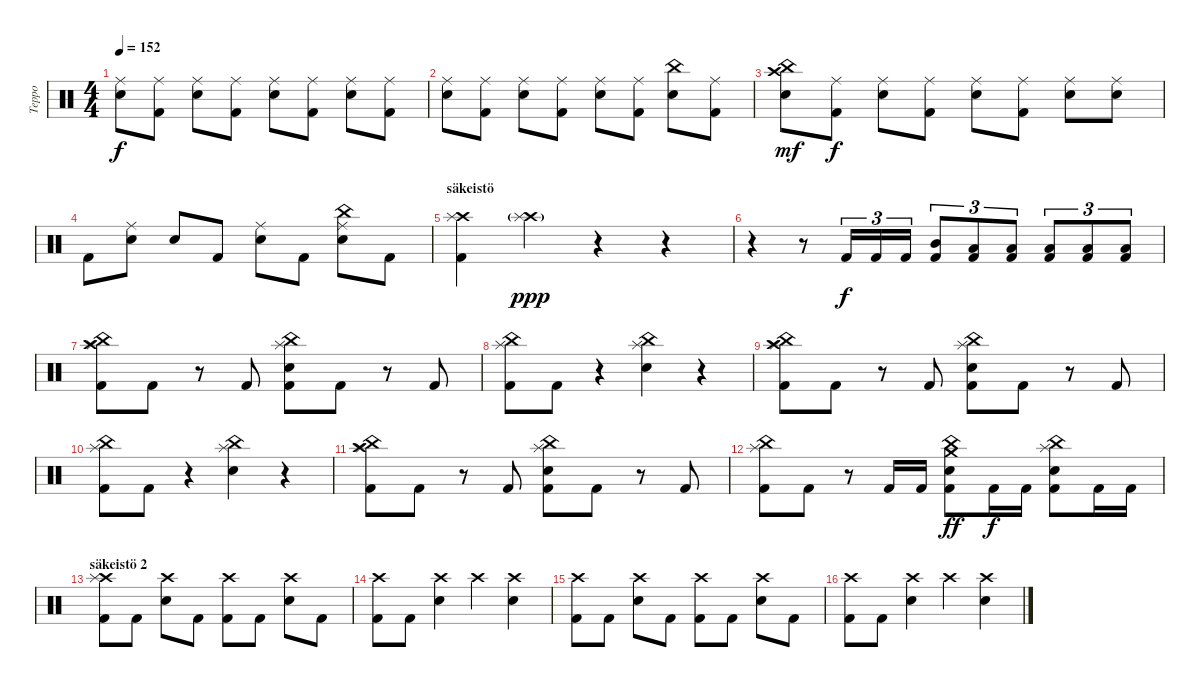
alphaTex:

\track ("Teppo" "Teppo") {instrument percussion}
\staff {score}
\articulation defaults
\ts (4 4)
\tempo 152
\clef neutral
\ks c
("Ride (middle)" "Electric Snare (hit)").8{dy f} ("Ride (middle)" "Kick (hit) 2").8 ("Ride (middle)" "Electric Snare (hit)").8 ("Ride (middle)" "Kick (hit) 2").8 ("Ride (middle)" "Electric Snare (hit)").8 ("Ride (middle)" "Kick (hit) 2").8 ("Ride (middle)" "Electric Snare (hit)").8 ("Ride (middle)" "Kick (hit) 2").8 |
("Ride (middle)" "Electric Snare (hit)").8 ("Ride (middle)" "Kick (hit) 2").8 ("Ride (middle)" "Electric Snare (hit)").8 ("Ride (middle)" "Kick (hit) 2").8 ("Ride (middle)" "Electric Snare (hit)").8 ("Ride (middle)" "Kick (hit) 2").8 ("China (hit)" "Electric Snare (hit)").8 ("Ride (middle)" "Kick (hit) 2").8 |
("China (hit)" "Crash high (hit)" "Electric Snare (hit)").8{dy mf} ("Ride (middle)" "Kick (hit) 2").8{dy f} ("Ride (middle)" "Electric Snare (hit)").8 ("Ride (middle)" "Kick (hit) 2").8 ("Ride (middle)" "Electric Snare (hit)").8 ("Ride (middle)" "Kick (hit) 2").8 ("Ride (middle)" "Electric Snare (hit)").8 ("Ride (middle)" "Electric Snare (hit)").8 |
"Kick (hit) 2".8 ("Ride (middle)" "Electric Snare (hit)").8 "Electric Snare (hit)".8 "Kick (hit) 2".8 ("Ride (middle)" "Electric Snare (hit)").8 "Kick (hit) 2".8 ("Ride (middle)" "China (hit)" "Electric Snare (hit)").8 "Kick (hit) 2".8 |
\section ("" "säkeistö")
("Crash high (hit)" "Splash (hit)" "Kick (hit) 2").4 ("Crash high (hit)"{g} "Splash (hit)"{g}).4{dy ppp} r.4 r.4 |
r.4 r.8 "Kick (hit) 2".16{tu (3 2) dy f} "Kick (hit) 2".16{tu (3 2)} "Kick (hit) 2".16{tu (3 2)} ("Mid Tom (hit)" "Kick (hit) 2").8{tu (3 2)} ("Low Floor Tom (hit)" "Kick (hit) 2").8{tu (3 2)} ("Low Floor Tom (hit)" "Kick (hit) 2").8{tu (3 2)} ("Low Floor Tom (hit)" "Kick (hit) 2").8{tu (3 2)} ("Low Floor Tom (hit)" "Kick (hit) 2").8{tu (3 2)} ("Low Floor Tom (hit)" "Kick (hit) 2").8{tu (3 2)} |
("Crash high (hit)" "China (hit)" "Splash (hit)" "Kick (hit) 2").8 "Kick (hit) 2".8 r.8 "Kick (hit) 2".8 ("China (hit)" "Splash (hit)" "Electric Snare (hit)" "Kick (hit) 2").8 "Kick (hit) 2".8 r.8 "Kick (hit) 2".8 |
("China (hit)" "Splash (hit)" "Kick (hit) 2").8 "Kick (hit) 2".8 r.4 ("China (hit)" "Splash (hit)" "Electric Snare (hit)").4 r.4 |
("Crash high (hit)" "China (hit)" "Splash (hit)" "Kick (hit) 2").8 "Kick (hit) 2".8 r.8 "Kick (hit) 2".8 ("China (hit)" "Splash (hit)" "Electric Snare (hit)" "Kick (hit) 2").8 "Kick (hit) 2".8 r.8 "Kick (hit) 2".8 |
("China (hit)" "Splash (hit)" "Kick (hit) 2").8 "Kick (hit) 2".8 r.4 ("China (hit)" "Splash (hit)" "Electric Snare (hit)").4 r.4 |
("Crash high (hit)" "China (hit)" "Splash (hit)" "Kick (hit) 2").8 "Kick (hit) 2".8 r.8 "Kick (hit) 2".8 ("China (hit)" "Splash (hit)" "Electric Snare (hit)" "Kick (hit) 2").8 "Kick (hit) 2".8 r.8 "Kick (hit) 2".8 |
("China (hit)" "Splash (hit)" "Kick (hit) 2").8 "Kick (hit) 2".8 r.8 "Kick (hit) 2".16 "Kick (hit) 2".16 ("China (hit)" "Crash medium (hit)" "Electric Snare (hit)" "Kick (hit) 2").8{dy ff} "Kick (hit) 2".16{dy f} "Kick (hit) 2".16 ("China (hit)" "Splash (hit)" "Electric Snare (hit)" "Kick (hit) 2").8 "Kick (hit) 2".16 "Kick (hit) 2".16 |
\section ("" "säkeistö 2")
("Crash high (hit)" "Splash (hit)" "Kick (hit) 2").8 "Kick (hit) 2".8 ("Crash high (hit)" "Electric Snare (hit)").8 "Kick (hit) 2".8 ("Crash high (hit)" "Kick (hit) 2").8 "Kick (hit) 2".8 ("Crash high (hit)" "Electric Snare (hit)").8 "Kick (hit) 2".8 |
("Crash high (hit)" "Kick (hit) 2").8 "Kick (hit) 2".8 ("Crash high (hit)" "Electric Snare (hit)").4 "Crash high (hit)".4 ("Crash high (hit)" "Electric Snare (hit)").4 |
("Crash high (hit)" "Kick (hit) 2").8 "Kick (hit) 2".8 ("Crash high (hit)" "Electric Snare (hit)").8 "Kick (hit) 2".8 ("Crash high (hit)" "Kick (hit) 2").8 "Kick (hit) 2".8 ("Crash high (hit)" "Electric Snare (hit)").8 "Kick (hit) 2".8 |
("Crash high (hit)" "Kick (hit) 2").8 "Kick (hit) 2".8 ("Crash high (hit)" "Electric Snare (hit)").4 "Crash high (hit)".4 ("Crash high (hit)" "Electric Snare (hit)").4
